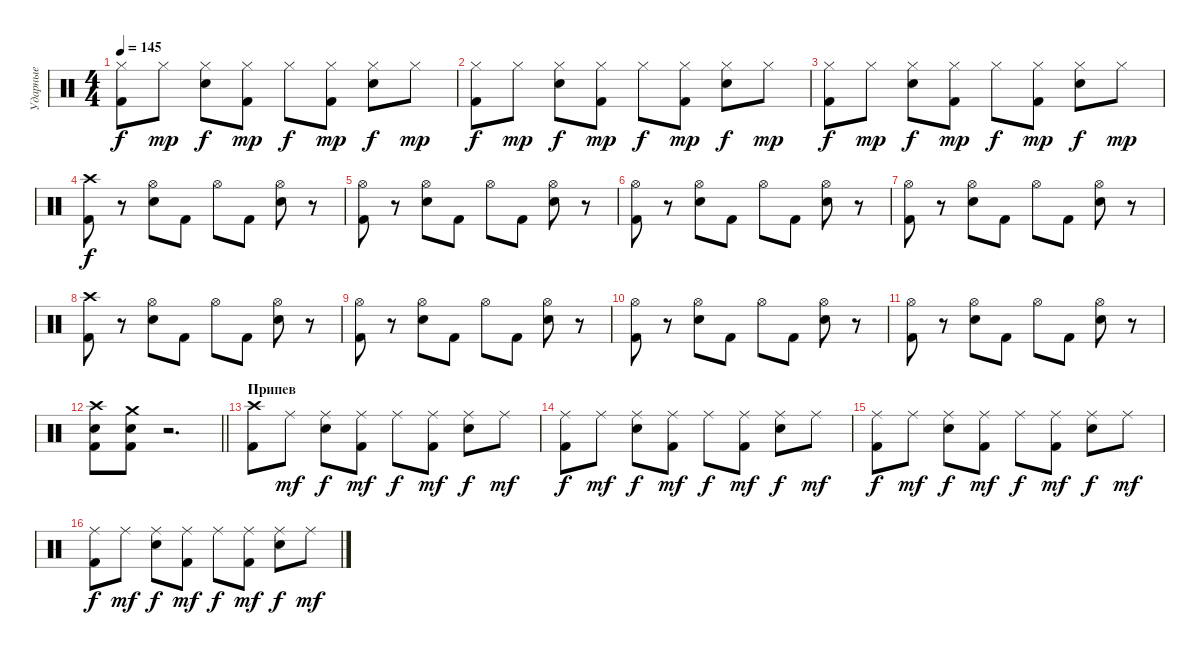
\track ("Ударные" "Ударные") {instrument percussion}
\staff {score}
\articulation defaults
\ts (4 4)
\tempo 145
\clef neutral
\ks c
("Hi-Hat (closed)" "Kick (hit) 2").8{dy f} "Hi-Hat (closed)".8{dy mp} ("Hi-Hat (closed)" "Snare (hit) 2").8{dy f} ("Hi-Hat (closed)" "Kick (hit) 2").8{dy mp} "Hi-Hat (closed)".8{dy f} ("Hi-Hat (closed)" "Kick (hit) 2").8{dy mp} ("Hi-Hat (closed)" "Snare (hit) 2").8{dy f} "Hi-Hat (closed)".8{dy mp} |
("Hi-Hat (closed)" "Kick (hit) 2").8{dy f} "Hi-Hat (closed)".8{dy mp} ("Hi-Hat (closed)" "Snare (hit) 2").8{dy f} ("Hi-Hat (closed)" "Kick (hit) 2").8{dy mp} "Hi-Hat (closed)".8{dy f} ("Hi-Hat (closed)" "Kick (hit) 2").8{dy mp} ("Hi-Hat (closed)" "Snare (hit) 2").8{dy f} "Hi-Hat (closed)".8{dy mp} |
("Hi-Hat (closed)" "Kick (hit) 2").8{dy f} "Hi-Hat (closed)".8{dy mp} ("Hi-Hat (closed)" "Snare (hit) 2").8{dy f} ("Hi-Hat (closed)" "Kick (hit) 2").8{dy mp} "Hi-Hat (closed)".8{dy f} ("Hi-Hat (closed)" "Kick (hit) 2").8{dy mp} ("Hi-Hat (closed)" "Snare (hit) 2").8{dy f} "Hi-Hat (closed)".8{dy mp} |
("Crash high (hit)" "Kick (hit) 2").8{dy f} r.8 ("Hi-Hat (open)" "Snare (hit) 2").8 "Kick (hit) 2".8 "Hi-Hat (open)".8 "Kick (hit) 2".8 ("Hi-Hat (open)" "Snare (hit) 2").8 r.8 |
("Hi-Hat (open)" "Kick (hit) 2").8 r.8 ("Hi-Hat (open)" "Snare (hit) 2").8 "Kick (hit) 2".8 "Hi-Hat (open)".8 "Kick (hit) 2".8 ("Hi-Hat (open)" "Snare (hit) 2").8 r.8 |
("Hi-Hat (open)" "Kick (hit) 2").8 r.8 ("Hi-Hat (open)" "Snare (hit) 2").8 "Kick (hit) 2".8 "Hi-Hat (open)".8 "Kick (hit) 2".8 ("Hi-Hat (open)" "Snare (hit) 2").8 r.8 |
("Hi-Hat (open)" "Kick (hit) 2").8 r.8 ("Hi-Hat (open)" "Snare (hit) 2").8 "Kick (hit) 2".8 "Hi-Hat (open)".8 "Kick (hit) 2".8 ("Hi-Hat (open)" "Snare (hit) 2").8 r.8 |
("Crash high (hit)" "Kick (hit) 2").8 r.8 ("Hi-Hat (open)" "Snare (hit) 2").8 "Kick (hit) 2".8 "Hi-Hat (open)".8 "Kick (hit) 2".8 ("Hi-Hat (open)" "Snare (hit) 2").8 r.8 |
("Hi-Hat (open)" "Kick (hit) 2").8 r.8 ("Hi-Hat (open)" "Snare (hit) 2").8 "Kick (hit) 2".8 "Hi-Hat (open)".8 "Kick (hit) 2".8 ("Hi-Hat (open)" "Snare (hit) 2").8 r.8 |
("Hi-Hat (open)" "Kick (hit) 2").8 r.8 ("Hi-Hat (open)" "Snare (hit) 2").8 "Kick (hit) 2".8 "Hi-Hat (open)".8 "Kick (hit) 2".8 ("Hi-Hat (open)" "Snare (hit) 2").8 r.8 |
("Hi-Hat (open)" "Kick (hit) 2").8 r.8 ("Hi-Hat (open)" "Snare (hit) 2").8 "Kick (hit) 2".8 "Hi-Hat (open)".8 "Kick (hit) 2".8 ("Hi-Hat (open)" "Snare (hit) 2").8 r.8 |
\barLineRight lightlight
("Snare (hit) 2" "Kick (hit) 2" "Crash high (hit)").8 ("Snare (hit) 2" "Kick (hit) 2" "Crash medium (hit)").8 r.2{d} |
\section ("" "Припев")
("Crash high (hit)" "Kick (hit) 2").8 "Ride (middle)".8{dy mf} ("Ride (middle)" "Snare (hit) 2").8{dy f} ("Ride (middle)" "Kick (hit) 2").8{dy mf} "Ride (middle)".8{dy f} ("Ride (middle)" "Kick (hit) 2").8{dy mf} ("Ride (middle)" "Snare (hit) 2").8{dy f} "Ride (middle)".8{dy mf} |
("Ride (middle)" "Kick (hit) 2").8{dy f} "Ride (middle)".8{dy mf} ("Ride (middle)" "Snare (hit) 2").8{dy f} ("Ride (middle)" "Kick (hit) 2").8{dy mf} "Ride (middle)".8{dy f} ("Ride (middle)" "Kick (hit) 2").8{dy mf} ("Ride (middle)" "Snare (hit) 2").8{dy f} "Ride (middle)".8{dy mf} |
("Ride (middle)" "Kick (hit) 2").8{dy f} "Ride (middle)".8{dy mf} ("Ride (middle)" "Snare (hit) 2").8{dy f} ("Ride (middle)" "Kick (hit) 2").8{dy mf} "Ride (middle)".8{dy f} ("Ride (middle)" "Kick (hit) 2").8{dy mf} ("Ride (middle)" "Snare (hit) 2").8{dy f} "Ride (middle)".8{dy mf} |
("Ride (middle)" "Kick (hit) 2").8{dy f} "Ride (middle)".8{dy mf} ("Ride (middle)" "Snare (hit) 2").8{dy f} ("Ride (middle)" "Kick (hit) 2").8{dy mf} "Ride (middle)".8{dy f} ("Ride (middle)" "Kick (hit) 2").8{dy mf} ("Ride (middle)" "Snare (hit) 2").8{dy f} "Ride (middle)".8{dy mf}
